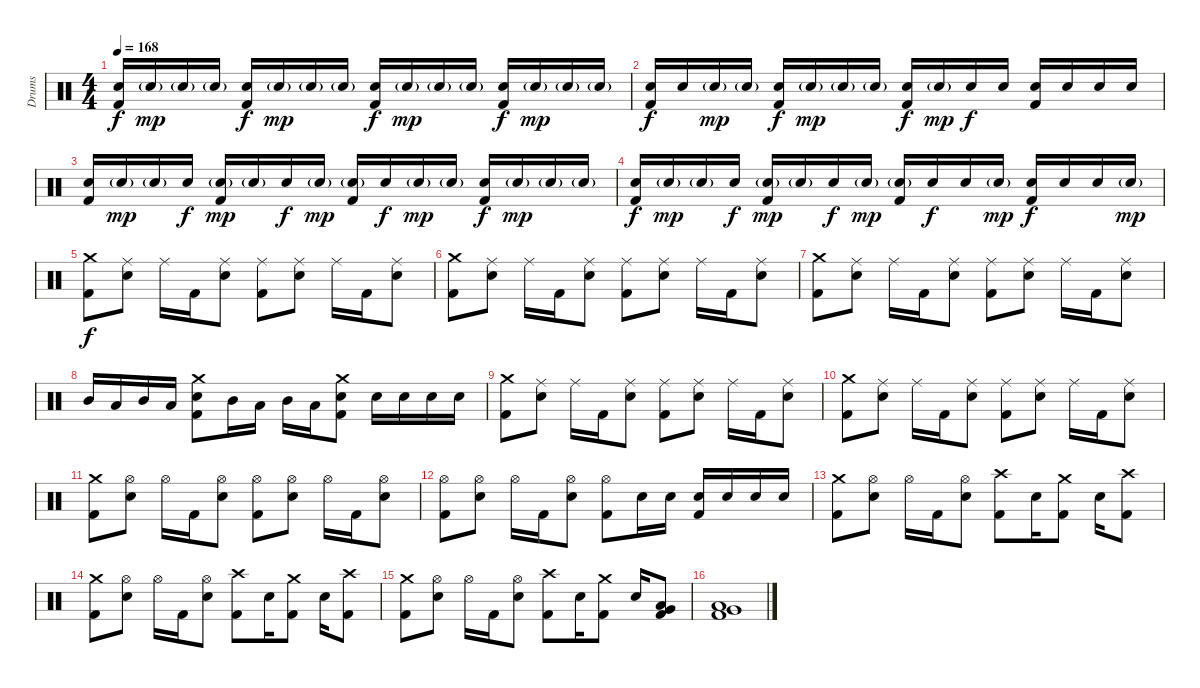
\track ("Drums" "Drums") {instrument percussion}
\staff {score}
\articulation defaults
\ts (4 4)
\tempo 168
\clef neutral
\ks c
("Electric Snare (hit)" "Kick (hit) 2").16{dy f} "Electric Snare (hit)"{g}.16{dy mp} "Electric Snare (hit)"{g}.16 "Electric Snare (hit)"{g}.16 ("Electric Snare (hit)" "Kick (hit) 2").16{dy f} "Electric Snare (hit)"{g}.16{dy mp} "Electric Snare (hit)"{g}.16 "Electric Snare (hit)"{g}.16 ("Electric Snare (hit)" "Kick (hit) 2").16{dy f} "Electric Snare (hit)"{g}.16{dy mp} "Electric Snare (hit)"{g}.16 "Electric Snare (hit)"{g}.16 ("Electric Snare (hit)" "Kick (hit) 2").16{dy f} "Electric Snare (hit)"{g}.16{dy mp} "Electric Snare (hit)"{g}.16 "Electric Snare (hit)"{g}.16 |
("Electric Snare (hit)" "Kick (hit) 2").16{dy f} "Electric Snare (hit)".16 "Electric Snare (hit)"{g}.16{dy mp} "Electric Snare (hit)"{g}.16 ("Electric Snare (hit)" "Kick (hit) 2").16{dy f} "Electric Snare (hit)"{g}.16{dy mp} "Electric Snare (hit)"{g}.16 "Electric Snare (hit)"{g}.16 ("Electric Snare (hit)" "Kick (hit) 2").16{dy f} "Electric Snare (hit)"{g}.16{dy mp} "Electric Snare (hit)".16{dy f} "Electric Snare (hit)".16 ("Electric Snare (hit)" "Kick (hit) 2").16 "Electric Snare (hit)".16 "Electric Snare (hit)".16 "Electric Snare (hit)".16 |
("Electric Snare (hit)" "Kick (hit) 2").16 "Electric Snare (hit)"{g}.16{dy mp} "Electric Snare (hit)"{g}.16 "Electric Snare (hit)".16{dy f} ("Electric Snare (hit)"{g} "Kick (hit) 2").16{dy mp} "Electric Snare (hit)"{g}.16 "Electric Snare (hit)".16{dy f} "Electric Snare (hit)"{g}.16{dy mp} ("Electric Snare (hit)"{g} "Kick (hit) 2").16 "Electric Snare (hit)".16{dy f} "Electric Snare (hit)"{g}.16{dy mp} "Electric Snare (hit)"{g}.16 ("Electric Snare (hit)" "Kick (hit) 2").16{dy f} "Electric Snare (hit)"{g}.16{dy mp} "Electric Snare (hit)"{g}.16 "Electric Snare (hit)"{g}.16 |
("Electric Snare (hit)" "Kick (hit) 2").16{dy f} "Electric Snare (hit)"{g}.16{dy mp} "Electric Snare (hit)"{g}.16 "Electric Snare (hit)".16{dy f} ("Electric Snare (hit)"{g} "Kick (hit) 2").16{dy mp} "Electric Snare (hit)"{g}.16 "Electric Snare (hit)".16{dy f} "Electric Snare (hit)"{g}.16{dy mp} ("Electric Snare (hit)"{g} "Kick (hit) 2").16 "Electric Snare (hit)".16{dy f} "Electric Snare (hit)".16 "Electric Snare (hit)"{g}.16{dy mp} ("Electric Snare (hit)" "Kick (hit) 2").16{dy f} "Electric Snare (hit)".16 "Electric Snare (hit)".16 "Electric Snare (hit)"{g}.16{dy mp} |
("Crash medium (hit)" "Kick (hit) 2").8{dy f} ("Ride (middle)" "Electric Snare (hit)").8 "Ride (middle)".16 "Kick (hit) 2".16 ("Ride (middle)" "Electric Snare (hit)").8 ("Ride (middle)" "Kick (hit) 2").8 ("Ride (middle)" "Electric Snare (hit)").8 "Ride (middle)".16 "Kick (hit) 2".16 ("Ride (middle)" "Electric Snare (hit)").8 |
("Crash medium (hit)" "Kick (hit) 2").8 ("Ride (middle)" "Electric Snare (hit)").8 "Ride (middle)".16 "Kick (hit) 2".16 ("Ride (middle)" "Electric Snare (hit)").8 ("Ride (middle)" "Kick (hit) 2").8 ("Ride (middle)" "Electric Snare (hit)").8 "Ride (middle)".16 "Kick (hit) 2".16 ("Ride (middle)" "Electric Snare (hit)").8 |
("Crash medium (hit)" "Kick (hit) 2").8 ("Ride (middle)" "Electric Snare (hit)").8 "Ride (middle)".16 "Kick (hit) 2".16 ("Ride (middle)" "Electric Snare (hit)").8 ("Ride (middle)" "Kick (hit) 2").8 ("Ride (middle)" "Electric Snare (hit)").8 "Ride (middle)".16 "Kick (hit) 2".16 ("Ride (middle)" "Electric Snare (hit)").8 |
"Mid Tom (hit)".16 "Low Tom (hit)".16 "Mid Tom (hit)".16 "Low Tom (hit)".16 ("Crash medium (hit)" "Electric Snare (hit)" "Kick (hit) 2").8 "Mid Tom (hit)".16 "Low Tom (hit)".16 "Mid Tom (hit)".16 "Low Tom (hit)".16 ("Crash medium (hit)" "Electric Snare (hit)" "Kick (hit) 2").8 "Electric Snare (hit)".16 "Electric Snare (hit)".16 "Electric Snare (hit)".16 "Electric Snare (hit)".16 |
("Crash medium (hit)" "Kick (hit) 2").8 ("Ride (middle)" "Electric Snare (hit)").8 "Ride (middle)".16 "Kick (hit) 2".16 ("Ride (middle)" "Electric Snare (hit)").8 ("Ride (middle)" "Kick (hit) 2").8 ("Ride (middle)" "Electric Snare (hit)").8 "Ride (middle)".16 "Kick (hit) 2".16 ("Ride (middle)" "Electric Snare (hit)").8 |
("Crash medium (hit)" "Kick (hit) 2").8 ("Ride (middle)" "Electric Snare (hit)").8 "Ride (middle)".16 "Kick (hit) 2".16 ("Ride (middle)" "Electric Snare (hit)").8 ("Ride (middle)" "Kick (hit) 2").8 ("Ride (middle)" "Electric Snare (hit)").8 "Ride (middle)".16 "Kick (hit) 2".16 ("Ride (middle)" "Electric Snare (hit)").8 |
("Crash medium (hit)" "Kick (hit) 2").8 ("Hi-Hat (open)" "Electric Snare (hit)").8 "Hi-Hat (open)".16 "Kick (hit) 2".16 ("Hi-Hat (open)" "Electric Snare (hit)").8 ("Hi-Hat (open)" "Kick (hit) 2").8 ("Hi-Hat (open)" "Electric Snare (hit)").8 "Hi-Hat (open)".16 "Kick (hit) 2".16 ("Hi-Hat (open)" "Electric Snare (hit)").8 |
("Hi-Hat (open)" "Kick (hit) 2").8 ("Hi-Hat (open)" "Electric Snare (hit)").8 "Hi-Hat (open)".16 "Kick (hit) 2".16 ("Hi-Hat (open)" "Electric Snare (hit)").8 ("Hi-Hat (open)" "Kick (hit) 2").8 "Electric Snare (hit)".16 "Electric Snare (hit)".16 ("Electric Snare (hit)" "Kick (hit) 2").16 "Electric Snare (hit)".16 "Electric Snare (hit)".16 "Electric Snare (hit)".16 |
("Crash medium (hit)" "Kick (hit) 2").8 ("Hi-Hat (open)" "Electric Snare (hit)").8 "Hi-Hat (open)".16 "Kick (hit) 2".16 ("Hi-Hat (open)" "Electric Snare (hit)").8 ("Crash high (hit)" "Kick (hit) 2").8 "Electric Snare (hit)".16 ("Crash medium (hit)" "Kick (hit) 2").8 "Electric Snare (hit)".16 ("Crash high (hit)" "Kick (hit) 2").8 |
("Crash medium (hit)" "Kick (hit) 2").8 ("Hi-Hat (open)" "Electric Snare (hit)").8 "Hi-Hat (open)".16 "Kick (hit) 2".16 ("Hi-Hat (open)" "Electric Snare (hit)").8 ("Crash high (hit)" "Kick (hit) 2").8 "Electric Snare (hit)".16 ("Crash medium (hit)" "Kick (hit) 2").8 "Electric Snare (hit)".16 ("Crash high (hit)" "Kick (hit) 2").8 |
("Crash medium (hit)" "Kick (hit) 2").8 ("Hi-Hat (open)" "Electric Snare (hit)").8 "Hi-Hat (open)".16 "Kick (hit) 2".16 ("Hi-Hat (open)" "Electric Snare (hit)").8 ("Crash high (hit)" "Kick (hit) 2").8 "Electric Snare (hit)".16 ("Crash medium (hit)" "Kick (hit) 2").8 "Electric Snare (hit)".16 ("Low Floor Tom (hit)" "Very Low Tom (hit)" "Kick (hit) 2").8 |
("Low Floor Tom (hit)" "Very Low Tom (hit)" "Kick (hit) 2").1
